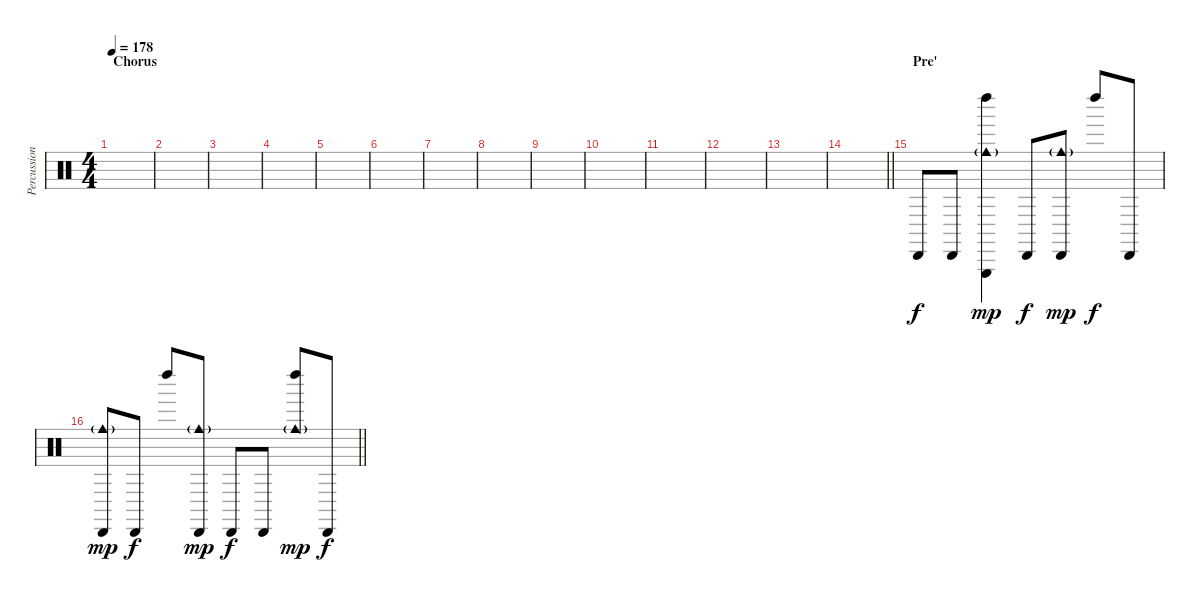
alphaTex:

\track ("Percussion" "Percussion") {instrument percussion}
\staff {score}
\articulation defaults
\ts (4 4)
\section ("" "Chorus")
\tempo 178
\clef neutral
\ks c
|
|
|
|
|
|
|
|
|
|
|
|
|
\barLineRight lightlight
|
\section ("" "Pre'")
"Cabasa (hit)".8{dy f} "Cabasa (hit)".8 ("Left Maraca (hit)" "Triangle (hit)" "Cowbell medium (hit)"{g}).4{dy mp} "Cabasa (hit)".8{dy f} ("Cabasa (hit)" "Cowbell medium (hit)"{g}).8{dy mp} "Left Maraca (hit)".8{dy f} "Cabasa (hit)".8 |
\barLineRight lightlight
("Cabasa (hit)" "Cowbell medium (hit)"{g}).8{dy mp} "Cabasa (hit)".8{dy f} "Left Maraca (hit)".8 ("Cabasa (hit)" "Cowbell medium (hit)"{g}).8{dy mp} "Cabasa (hit)".8{dy f} "Cabasa (hit)".8 ("Left Maraca (hit)" "Cowbell medium (hit)"{g}).8{dy mp} "Cabasa (hit)".8{dy f}
